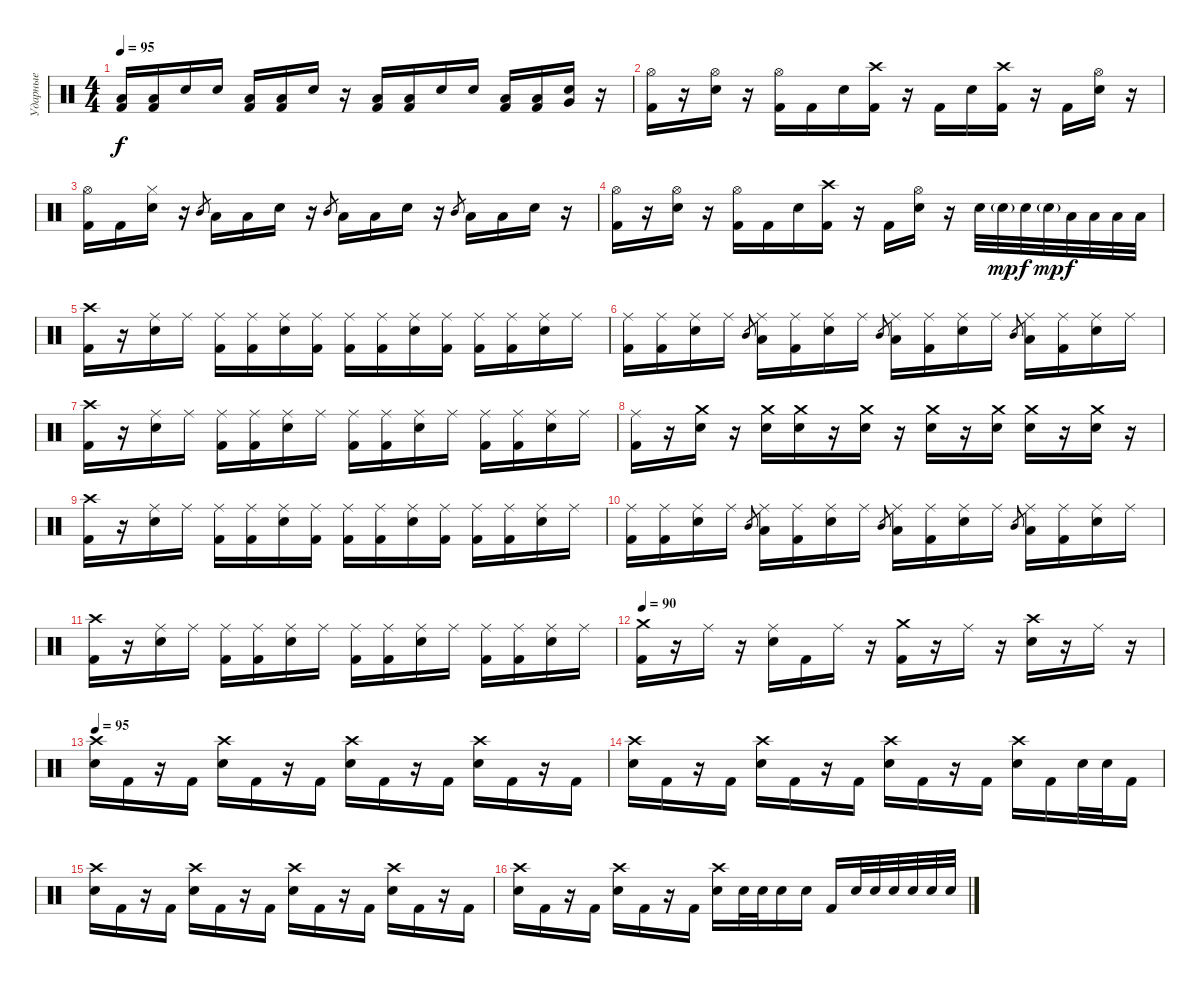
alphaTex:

\track ("Ударные" "Ударные") {instrument percussion}
\staff {score}
\articulation defaults
\ts (4 4)
\tempo 95
\clef neutral
\ks c
("Low Tom (hit)" "Kick (hit) 2").16{dy f} ("Low Tom (hit)" "Kick (hit) 2").16 "Electric Snare (hit)".16 "Electric Snare (hit)".16 ("Low Tom (hit)" "Kick (hit) 2").16 ("Low Tom (hit)" "Kick (hit) 2").16 "Electric Snare (hit)".16 r.16 ("Low Tom (hit)" "Kick (hit) 2").16 ("Low Tom (hit)" "Kick (hit) 2").16 "Electric Snare (hit)".16 "Electric Snare (hit)".16 ("Low Tom (hit)" "Kick (hit) 2").16 ("Low Tom (hit)" "Kick (hit) 2").16 ("Very Low Tom (hit)" "Electric Snare (hit)").16 r.16 |
("Hi-Hat (open)" "Kick (hit) 2").16 r.16 ("Hi-Hat (open)" "Electric Snare (hit)").16 r.16 ("Hi-Hat (open)" "Kick (hit) 2").16 "Kick (hit) 2".16 "Electric Snare (hit)".16 ("Crash high (hit)" "Kick (hit) 2").16 r.16 "Kick (hit) 2".16 "Electric Snare (hit)".16 ("Crash high (hit)" "Kick (hit) 2").16 r.16 "Kick (hit) 2".16 ("Hi-Hat (open)" "Electric Snare (hit)").16 r.16 |
("Hi-Hat (open)" "Kick (hit) 2").16 "Kick (hit) 2".16 ("Hi-Hat (closed)" "Electric Snare (hit)").16 r.16 "Mid Tom (hit)".8{gr} "Low Tom (hit)".16 "Low Tom (hit)".16 "Electric Snare (hit)".16 r.16 "Mid Tom (hit)".8{gr} "Low Tom (hit)".16 "Low Tom (hit)".16 "Electric Snare (hit)".16 r.16 "Mid Tom (hit)".8{gr} "Low Tom (hit)".16 "Low Tom (hit)".16 "Electric Snare (hit)".16 r.16 |
("Hi-Hat (open)" "Kick (hit) 2").16 r.16 ("Hi-Hat (open)" "Electric Snare (hit)").16 r.16 ("Hi-Hat (open)" "Kick (hit) 2").16 "Kick (hit) 2".16 "Electric Snare (hit)".16 ("Crash high (hit)" "Kick (hit) 2").16 r.16 "Kick (hit) 2".16 ("Hi-Hat (open)" "Electric Snare (hit)").16 r.16 "Electric Snare (hit)".32 "Electric Snare (hit)"{g}.32{dy mp} "Electric Snare (hit)".32{dy f} "Electric Snare (hit)"{g}.32{dy mp} "Low Tom (hit)".32{dy f} "Low Tom (hit)".32 "Low Tom (hit)".32 "Low Tom (hit)".32 |
("Crash high (hit)" "Kick (hit) 2").16 r.16 ("Ride (middle)" "Electric Snare (hit)").16 "Ride (middle)".16 ("Ride (middle)" "Kick (hit) 2").16 ("Ride (middle)" "Kick (hit) 2").16 ("Ride (middle)" "Electric Snare (hit)").16 ("Ride (middle)" "Kick (hit) 2").16 ("Ride (middle)" "Kick (hit) 2").16 ("Ride (middle)" "Kick (hit) 2").16 ("Ride (middle)" "Electric Snare (hit)").16 ("Ride (middle)" "Kick (hit) 2").16 ("Ride (middle)" "Kick (hit) 2").16 ("Ride (middle)" "Kick (hit) 2").16 ("Ride (middle)" "Electric Snare (hit)").16 "Ride (middle)".16 |
("Ride (middle)" "Kick (hit) 2").16 ("Ride (middle)" "Kick (hit) 2").16 ("Ride (middle)" "Electric Snare (hit)").16 "Ride (middle)".16 "Mid Tom (hit)".8{gr} ("Ride (middle)" "Low Tom (hit)").16 ("Ride (middle)" "Kick (hit) 2").16 ("Ride (middle)" "Electric Snare (hit)").16 "Ride (middle)".16 "Mid Tom (hit)".8{gr} ("Ride (middle)" "Low Tom (hit)").16 ("Ride (middle)" "Kick (hit) 2").16 ("Ride (middle)" "Electric Snare (hit)").16 "Ride (middle)".16 "Mid Tom (hit)".8{gr} ("Ride (middle)" "Low Tom (hit)").16 ("Ride (middle)" "Kick (hit) 2").16 ("Ride (middle)" "Electric Snare (hit)").16 "Ride (middle)".16 |
("Crash high (hit)" "Kick (hit) 2").16 r.16 ("Ride (middle)" "Electric Snare (hit)").16 "Ride (middle)".16 ("Ride (middle)" "Kick (hit) 2").16 ("Ride (middle)" "Kick (hit) 2").16 ("Ride (middle)" "Electric Snare (hit)").16 "Ride (middle)".16 ("Ride (middle)" "Kick (hit) 2").16 ("Ride (middle)" "Kick (hit) 2").16 ("Ride (middle)" "Electric Snare (hit)").16 "Ride (middle)".16 ("Ride (middle)" "Kick (hit) 2").16 ("Ride (middle)" "Kick (hit) 2").16 ("Ride (middle)" "Electric Snare (hit)").16 "Ride (middle)".16 |
("Ride (middle)" "Kick (hit) 2").16 r.16 ("Crash medium (hit)" "Electric Snare (hit)").16 r.16 ("Crash medium (hit)" "Electric Snare (hit)").16 ("Crash medium (hit)" "Electric Snare (hit)").16 r.16 ("Crash medium (hit)" "Electric Snare (hit)").16 r.16 ("Crash medium (hit)" "Electric Snare (hit)").16 r.16 ("Crash medium (hit)" "Electric Snare (hit)").16 ("Crash medium (hit)" "Electric Snare (hit)").16 r.16 ("Crash medium (hit)" "Electric Snare (hit)").16 r.16 |
("Crash high (hit)" "Kick (hit) 2").16 r.16 ("Ride (middle)" "Electric Snare (hit)").16 "Ride (middle)".16 ("Ride (middle)" "Kick (hit) 2").16 ("Ride (middle)" "Kick (hit) 2").16 ("Ride (middle)" "Electric Snare (hit)").16 ("Ride (middle)" "Kick (hit) 2").16 ("Ride (middle)" "Kick (hit) 2").16 ("Ride (middle)" "Kick (hit) 2").16 ("Ride (middle)" "Electric Snare (hit)").16 ("Ride (middle)" "Kick (hit) 2").16 ("Ride (middle)" "Kick (hit) 2").16 ("Ride (middle)" "Kick (hit) 2").16 ("Ride (middle)" "Electric Snare (hit)").16 "Ride (middle)".16 |
("Ride (middle)" "Kick (hit) 2").16 ("Ride (middle)" "Kick (hit) 2").16 ("Ride (middle)" "Electric Snare (hit)").16 "Ride (middle)".16 "Mid Tom (hit)".8{gr} ("Ride (middle)" "Low Tom (hit)").16 ("Ride (middle)" "Kick (hit) 2").16 ("Ride (middle)" "Electric Snare (hit)").16 "Ride (middle)".16 "Mid Tom (hit)".8{gr} ("Ride (middle)" "Low Tom (hit)").16 ("Ride (middle)" "Kick (hit) 2").16 ("Ride (middle)" "Electric Snare (hit)").16 "Ride (middle)".16 "Mid Tom (hit)".8{gr} ("Ride (middle)" "Low Tom (hit)").16 ("Ride (middle)" "Kick (hit) 2").16 ("Ride (middle)" "Electric Snare (hit)").16 "Ride (middle)".16 |
("Crash high (hit)" "Kick (hit) 2").16 r.16 ("Ride (middle)" "Electric Snare (hit)").16 "Ride (middle)".16 ("Ride (middle)" "Kick (hit) 2").16 ("Ride (middle)" "Kick (hit) 2").16 ("Ride (middle)" "Electric Snare (hit)").16 "Ride (middle)".16 ("Ride (middle)" "Kick (hit) 2").16 ("Ride (middle)" "Kick (hit) 2").16 ("Ride (middle)" "Electric Snare (hit)").16 "Ride (middle)".16 ("Ride (middle)" "Kick (hit) 2").16 ("Ride (middle)" "Kick (hit) 2").16 ("Ride (middle)" "Electric Snare (hit)").16 "Ride (middle)".16 |
\tempo 90
("Crash medium (hit)" "Kick (hit) 2").16 r.16 "Ride (middle)".16 r.16 ("Ride (middle)" "Electric Snare (hit)").16 "Kick (hit) 2".16 "Ride (middle)".16 r.16 ("Crash medium (hit)" "Kick (hit) 2").16 r.16 "Ride (middle)".16 r.16 ("Crash high (hit)" "Electric Snare (hit)").16 r.16 "Ride (middle)".16 r.16 |
\tempo 95
("Crash high (hit)" "Electric Snare (hit)").16 "Kick (hit) 2".16 r.16 "Kick (hit) 2".16 ("Crash high (hit)" "Electric Snare (hit)").16 "Kick (hit) 2".16 r.16 "Kick (hit) 2".16 ("Crash high (hit)" "Electric Snare (hit)").16 "Kick (hit) 2".16 r.16 "Kick (hit) 2".16 ("Crash high (hit)" "Electric Snare (hit)").16 "Kick (hit) 2".16 r.16 "Kick (hit) 2".16 |
("Crash high (hit)" "Electric Snare (hit)").16 "Kick (hit) 2".16 r.16 "Kick (hit) 2".16 ("Crash high (hit)" "Electric Snare (hit)").16 "Kick (hit) 2".16 r.16 "Kick (hit) 2".16 ("Crash high (hit)" "Electric Snare (hit)").16 "Kick (hit) 2".16 r.16 "Kick (hit) 2".16 ("Crash high (hit)" "Electric Snare (hit)").16 "Kick (hit) 2".16 "Electric Snare (hit)".32 "Electric Snare (hit)".32 "Kick (hit) 2".16 |
("Crash high (hit)" "Electric Snare (hit)").16 "Kick (hit) 2".16 r.16 "Kick (hit) 2".16 ("Crash high (hit)" "Electric Snare (hit)").16 "Kick (hit) 2".16 r.16 "Kick (hit) 2".16 ("Crash high (hit)" "Electric Snare (hit)").16 "Kick (hit) 2".16 r.16 "Kick (hit) 2".16 ("Crash high (hit)" "Electric Snare (hit)").16 "Kick (hit) 2".16 r.16 "Kick (hit) 2".16 |
("Crash high (hit)" "Electric Snare (hit)").16 "Kick (hit) 2".16 r.16 "Kick (hit) 2".16 ("Crash high (hit)" "Electric Snare (hit)").16 "Kick (hit) 2".16 r.16 "Kick (hit) 2".16 ("Crash high (hit)" "Electric Snare (hit)").16 "Electric Snare (hit)".32 "Electric Snare (hit)".32 "Electric Snare (hit)".16 "Electric Snare (hit)".16 "Kick (hit) 2".16 "Electric Snare (hit)".32 "Electric Snare (hit)".32 "Electric Snare (hit)".32 "Electric Snare (hit)".32 "Electric Snare (hit)".32 "Electric Snare (hit)".32
